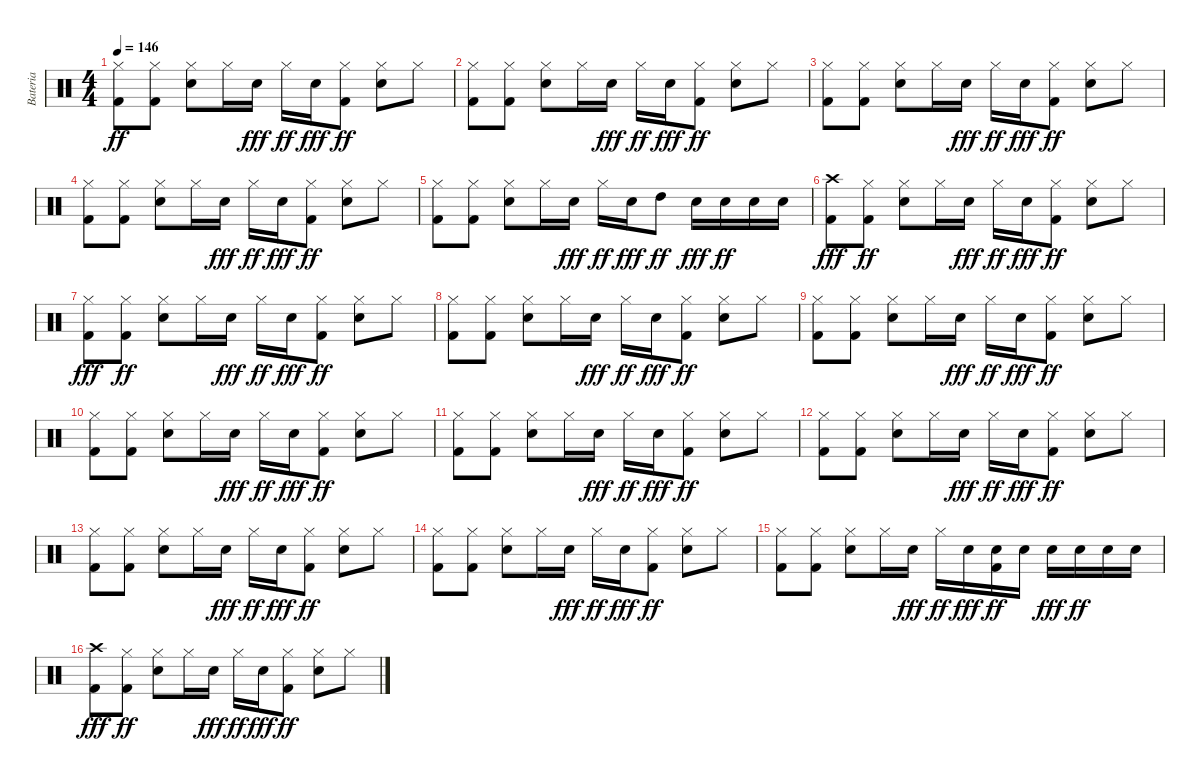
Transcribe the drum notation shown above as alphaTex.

\track ("Bateria" "Bateria") {instrument percussion}
\staff {score}
\articulation defaults
\ts (4 4)
\tempo 146
\clef neutral
\ks c
("Hi-Hat (closed)" "Kick (hit) 2").8{dy ff} ("Kick (hit) 2" "Hi-Hat (closed)").8 ("Electric Snare (hit)" "Hi-Hat (closed)").8 "Hi-Hat (closed)".16 "Electric Snare (hit)".16{dy fff} "Hi-Hat (closed)".16{dy ff} "Electric Snare (hit)".16{dy fff} ("Kick (hit) 2" "Hi-Hat (closed)").8{dy ff} ("Electric Snare (hit)" "Hi-Hat (closed)").8 "Hi-Hat (closed)".8 |
("Hi-Hat (closed)" "Kick (hit) 2").8 ("Kick (hit) 2" "Hi-Hat (closed)").8 ("Electric Snare (hit)" "Hi-Hat (closed)").8 "Hi-Hat (closed)".16 "Electric Snare (hit)".16{dy fff} "Hi-Hat (closed)".16{dy ff} "Electric Snare (hit)".16{dy fff} ("Kick (hit) 2" "Hi-Hat (closed)").8{dy ff} ("Electric Snare (hit)" "Hi-Hat (closed)").8 "Hi-Hat (closed)".8 |
("Hi-Hat (closed)" "Kick (hit) 2").8 ("Kick (hit) 2" "Hi-Hat (closed)").8 ("Electric Snare (hit)" "Hi-Hat (closed)").8 "Hi-Hat (closed)".16 "Electric Snare (hit)".16{dy fff} "Hi-Hat (closed)".16{dy ff} "Electric Snare (hit)".16{dy fff} ("Kick (hit) 2" "Hi-Hat (closed)").8{dy ff} ("Electric Snare (hit)" "Hi-Hat (closed)").8 "Hi-Hat (closed)".8 |
("Hi-Hat (closed)" "Kick (hit) 2").8 ("Kick (hit) 2" "Hi-Hat (closed)").8 ("Electric Snare (hit)" "Hi-Hat (closed)").8 "Hi-Hat (closed)".16 "Electric Snare (hit)".16{dy fff} "Hi-Hat (closed)".16{dy ff} "Electric Snare (hit)".16{dy fff} ("Kick (hit) 2" "Hi-Hat (closed)").8{dy ff} ("Electric Snare (hit)" "Hi-Hat (closed)").8 "Hi-Hat (closed)".8 |
("Kick (hit) 2" "Hi-Hat (closed)").8 ("Kick (hit) 2" "Hi-Hat (closed)").8 ("Electric Snare (hit)" "Hi-Hat (closed)").8 "Hi-Hat (closed)".16 "Electric Snare (hit)".16{dy fff} "Hi-Hat (closed)".16{dy ff} "Electric Snare (hit)".16{dy fff} "High Tom (hit)".8{dy ff} "Electric Snare (hit)".16{dy fff} "Electric Snare (hit)".16{dy ff} "Electric Snare (hit)".16 "Electric Snare (hit)".16 |
("Crash high (hit)" "Kick (hit) 2").8{dy fff} ("Kick (hit) 2" "Hi-Hat (closed)").8{dy ff} ("Electric Snare (hit)" "Hi-Hat (closed)").8 "Hi-Hat (closed)".16 "Electric Snare (hit)".16{dy fff} "Hi-Hat (closed)".16{dy ff} "Electric Snare (hit)".16{dy fff} ("Kick (hit) 2" "Hi-Hat (closed)").8{dy ff} ("Electric Snare (hit)" "Hi-Hat (closed)").8 "Hi-Hat (closed)".8 |
("Hi-Hat (closed)" "Kick (hit) 2").8{dy fff} ("Kick (hit) 2" "Hi-Hat (closed)").8{dy ff} ("Electric Snare (hit)" "Hi-Hat (closed)").8 "Hi-Hat (closed)".16 "Electric Snare (hit)".16{dy fff} "Hi-Hat (closed)".16{dy ff} "Electric Snare (hit)".16{dy fff} ("Kick (hit) 2" "Hi-Hat (closed)").8{dy ff} ("Electric Snare (hit)" "Hi-Hat (closed)").8 "Hi-Hat (closed)".8 |
("Hi-Hat (closed)" "Kick (hit) 2").8 ("Kick (hit) 2" "Hi-Hat (closed)").8 ("Electric Snare (hit)" "Hi-Hat (closed)").8 "Hi-Hat (closed)".16 "Electric Snare (hit)".16{dy fff} "Hi-Hat (closed)".16{dy ff} "Electric Snare (hit)".16{dy fff} ("Kick (hit) 2" "Hi-Hat (closed)").8{dy ff} ("Electric Snare (hit)" "Hi-Hat (closed)").8 "Hi-Hat (closed)".8 |
("Hi-Hat (closed)" "Kick (hit) 2").8 ("Kick (hit) 2" "Hi-Hat (closed)").8 ("Electric Snare (hit)" "Hi-Hat (closed)").8 "Hi-Hat (closed)".16 "Electric Snare (hit)".16{dy fff} "Hi-Hat (closed)".16{dy ff} "Electric Snare (hit)".16{dy fff} ("Kick (hit) 2" "Hi-Hat (closed)").8{dy ff} ("Electric Snare (hit)" "Hi-Hat (closed)").8 "Hi-Hat (closed)".8 |
("Hi-Hat (closed)" "Kick (hit) 2").8 ("Kick (hit) 2" "Hi-Hat (closed)").8 ("Electric Snare (hit)" "Hi-Hat (closed)").8 "Hi-Hat (closed)".16 "Electric Snare (hit)".16{dy fff} "Hi-Hat (closed)".16{dy ff} "Electric Snare (hit)".16{dy fff} ("Kick (hit) 2" "Hi-Hat (closed)").8{dy ff} ("Electric Snare (hit)" "Hi-Hat (closed)").8 "Hi-Hat (closed)".8 |
("Hi-Hat (closed)" "Kick (hit) 2").8 ("Kick (hit) 2" "Hi-Hat (closed)").8 ("Electric Snare (hit)" "Hi-Hat (closed)").8 "Hi-Hat (closed)".16 "Electric Snare (hit)".16{dy fff} "Hi-Hat (closed)".16{dy ff} "Electric Snare (hit)".16{dy fff} ("Kick (hit) 2" "Hi-Hat (closed)").8{dy ff} ("Electric Snare (hit)" "Hi-Hat (closed)").8 "Hi-Hat (closed)".8 |
("Hi-Hat (closed)" "Kick (hit) 2").8 ("Kick (hit) 2" "Hi-Hat (closed)").8 ("Electric Snare (hit)" "Hi-Hat (closed)").8 "Hi-Hat (closed)".16 "Electric Snare (hit)".16{dy fff} "Hi-Hat (closed)".16{dy ff} "Electric Snare (hit)".16{dy fff} ("Kick (hit) 2" "Hi-Hat (closed)").8{dy ff} ("Electric Snare (hit)" "Hi-Hat (closed)").8 "Hi-Hat (closed)".8 |
("Hi-Hat (closed)" "Kick (hit) 2").8 ("Kick (hit) 2" "Hi-Hat (closed)").8 ("Electric Snare (hit)" "Hi-Hat (closed)").8 "Hi-Hat (closed)".16 "Electric Snare (hit)".16{dy fff} "Hi-Hat (closed)".16{dy ff} "Electric Snare (hit)".16{dy fff} ("Kick (hit) 2" "Hi-Hat (closed)").8{dy ff} ("Electric Snare (hit)" "Hi-Hat (closed)").8 "Hi-Hat (closed)".8 |
("Hi-Hat (closed)" "Kick (hit) 2").8 ("Kick (hit) 2" "Hi-Hat (closed)").8 ("Electric Snare (hit)" "Hi-Hat (closed)").8 "Hi-Hat (closed)".16 "Electric Snare (hit)".16{dy fff} "Hi-Hat (closed)".16{dy ff} "Electric Snare (hit)".16{dy fff} ("Kick (hit) 2" "Hi-Hat (closed)").8{dy ff} ("Electric Snare (hit)" "Hi-Hat (closed)").8 "Hi-Hat (closed)".8 |
("Kick (hit) 2" "Hi-Hat (closed)").8 ("Kick (hit) 2" "Hi-Hat (closed)").8 ("Electric Snare (hit)" "Hi-Hat (closed)").8 "Hi-Hat (closed)".16 "Electric Snare (hit)".16{dy fff} "Hi-Hat (closed)".16{dy ff} "Electric Snare (hit)".16{dy fff} ("Kick (hit) 2" "Electric Snare (hit)").16{dy ff} "Electric Snare (hit)".16 "Electric Snare (hit)".16{dy fff} "Electric Snare (hit)".16{dy ff} "Electric Snare (hit)".16 "Electric Snare (hit)".16 |
("Crash high (hit)" "Kick (hit) 2").8{dy fff} ("Kick (hit) 2" "Hi-Hat (closed)").8{dy ff} ("Electric Snare (hit)" "Hi-Hat (closed)").8 "Hi-Hat (closed)".16 "Electric Snare (hit)".16{dy fff} "Hi-Hat (closed)".16{dy ff} "Electric Snare (hit)".16{dy fff} ("Kick (hit) 2" "Hi-Hat (closed)").8{dy ff} ("Electric Snare (hit)" "Hi-Hat (closed)").8 "Hi-Hat (closed)".8
